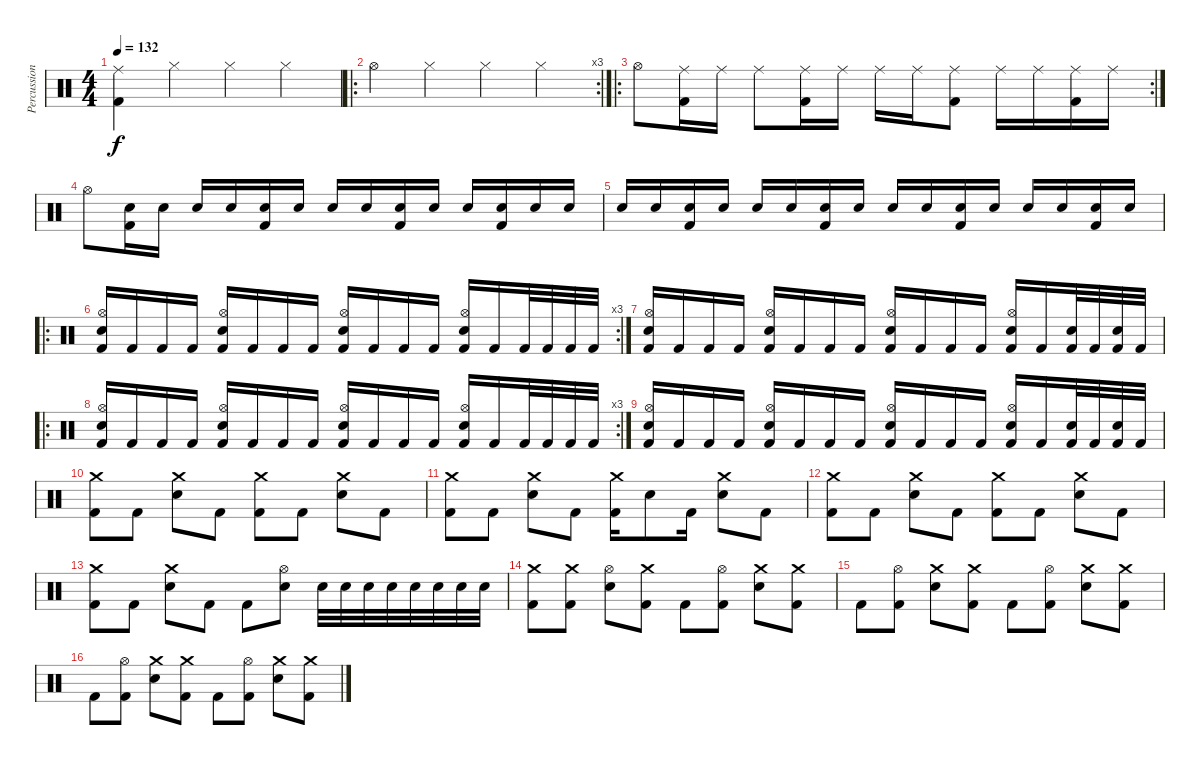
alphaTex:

\track ("Percussion" "Percussion") {instrument percussion}
\staff {score}
\articulation defaults
\ts (4 4)
\tempo 132
\clef neutral
\ks c
("Kick (hit) 2" "Ride (middle)").4{dy f} "Hi-Hat (closed)".4 "Hi-Hat (closed)".4 "Hi-Hat (closed)".4 |
\ro
\rc 3 "Hi-Hat (open)".4 "Hi-Hat (closed)".4 "Hi-Hat (closed)".4 "Hi-Hat (closed)".4
|
\ro
\rc 2 "Hi-Hat (open)".8
("Ride (middle)" "Kick (hit) 2").16 "Ride (middle)".16 "Ride (middle)".8 ("Ride (middle)" "Kick (hit) 2").16 "Ride (middle)".16 "Ride (middle)".16 "Ride (middle)".16 ("Ride (middle)" "Kick (hit) 2").8 "Ride (middle)".16 "Ride (middle)".16 ("Ride (middle)" "Kick (hit) 2").16 "Ride (middle)".16 |
"Hi-Hat (open)".8 ("Electric Snare (hit)" "Kick (hit) 2").16 "Electric Snare (hit)".16 "Electric Snare (hit)".16 "Electric Snare (hit)".16 ("Electric Snare (hit)" "Kick (hit) 2").16 "Electric Snare (hit)".16 "Electric Snare (hit)".16 "Electric Snare (hit)".16 ("Electric Snare (hit)" "Kick (hit) 2").16 "Electric Snare (hit)".16 "Electric Snare (hit)".16 ("Electric Snare (hit)" "Kick (hit) 2").16 "Electric Snare (hit)".16 "Electric Snare (hit)".16 |
"Electric Snare (hit)".16 "Electric Snare (hit)".16 ("Electric Snare (hit)" "Kick (hit) 2").16 "Electric Snare (hit)".16 "Electric Snare (hit)".16 "Electric Snare (hit)".16 ("Electric Snare (hit)" "Kick (hit) 2").16 "Electric Snare (hit)".16 "Electric Snare (hit)".16 "Electric Snare (hit)".16 ("Electric Snare (hit)" "Kick (hit) 2").16 "Electric Snare (hit)".16 "Electric Snare (hit)".16 "Electric Snare (hit)".16 ("Electric Snare (hit)" "Kick (hit) 2").16 "Electric Snare (hit)".16 |
\ro
\rc 3
("Kick (hit) 2" "Electric Snare (hit)" "Hi-Hat (open)").16 "Kick (hit) 2".16 "Kick (hit) 2".16 "Kick (hit) 2".16 ("Kick (hit) 2" "Electric Snare (hit)" "Hi-Hat (open)").16 "Kick (hit) 2".16 "Kick (hit) 2".16 "Kick (hit) 2".16 ("Kick (hit) 2" "Electric Snare (hit)" "Hi-Hat (open)").16 "Kick (hit) 2".16 "Kick (hit) 2".16 "Kick (hit) 2".16 ("Kick (hit) 2" "Electric Snare (hit)" "Hi-Hat (open)").16 "Kick (hit) 2".16 "Kick (hit) 2".32 "Kick (hit) 2".32 "Kick (hit) 2".32 "Kick (hit) 2".32 |
("Kick (hit) 2" "Electric Snare (hit)" "Hi-Hat (open)").16 "Kick (hit) 2".16 "Kick (hit) 2".16 "Kick (hit) 2".16 ("Kick (hit) 2" "Electric Snare (hit)" "Hi-Hat (open)").16 "Kick (hit) 2".16 "Kick (hit) 2".16 "Kick (hit) 2".16 ("Kick (hit) 2" "Electric Snare (hit)" "Hi-Hat (open)").16 "Kick (hit) 2".16 "Kick (hit) 2".16 "Kick (hit) 2".16 ("Kick (hit) 2" "Electric Snare (hit)" "Hi-Hat (open)").16 "Kick (hit) 2".16 ("Kick (hit) 2" "Electric Snare (hit)").32 "Kick (hit) 2".32 ("Kick (hit) 2" "Electric Snare (hit)").32 "Kick (hit) 2".32 |
\ro
\rc 3
("Kick (hit) 2" "Electric Snare (hit)" "Hi-Hat (open)").16 "Kick (hit) 2".16 "Kick (hit) 2".16 "Kick (hit) 2".16 ("Kick (hit) 2" "Electric Snare (hit)" "Hi-Hat (open)").16 "Kick (hit) 2".16 "Kick (hit) 2".16 "Kick (hit) 2".16 ("Kick (hit) 2" "Electric Snare (hit)" "Hi-Hat (open)").16 "Kick (hit) 2".16 "Kick (hit) 2".16 "Kick (hit) 2".16 ("Kick (hit) 2" "Electric Snare (hit)" "Hi-Hat (open)").16 "Kick (hit) 2".16 "Kick (hit) 2".32 "Kick (hit) 2".32 "Kick (hit) 2".32 "Kick (hit) 2".32 |
("Kick (hit) 2" "Electric Snare (hit)" "Hi-Hat (open)").16 "Kick (hit) 2".16 "Kick (hit) 2".16 "Kick (hit) 2".16 ("Kick (hit) 2" "Electric Snare (hit)" "Hi-Hat (open)").16 "Kick (hit) 2".16 "Kick (hit) 2".16 "Kick (hit) 2".16 ("Kick (hit) 2" "Electric Snare (hit)" "Hi-Hat (open)").16 "Kick (hit) 2".16 "Kick (hit) 2".16 "Kick (hit) 2".16 ("Kick (hit) 2" "Electric Snare (hit)" "Hi-Hat (open)").16 "Kick (hit) 2".16 ("Kick (hit) 2" "Electric Snare (hit)").32 "Kick (hit) 2".32 ("Kick (hit) 2" "Electric Snare (hit)").32 "Kick (hit) 2".32 |
("Kick (hit) 2" "Crash medium (hit)").8 "Kick (hit) 2".8 ("Electric Snare (hit)" "Crash medium (hit)").8 "Kick (hit) 2".8 ("Kick (hit) 2" "Crash medium (hit)").8 "Kick (hit) 2".8 ("Electric Snare (hit)" "Crash medium (hit)").8 "Kick (hit) 2".8 |
("Kick (hit) 2" "Crash medium (hit)").8 "Kick (hit) 2".8 ("Electric Snare (hit)" "Crash medium (hit)").8 "Kick (hit) 2".8 ("Kick (hit) 2" "Crash medium (hit)").16 "Electric Snare (hit)".8 "Kick (hit) 2".16 ("Electric Snare (hit)" "Crash medium (hit)").8 "Kick (hit) 2".8 |
("Kick (hit) 2" "Crash medium (hit)").8 "Kick (hit) 2".8 ("Electric Snare (hit)" "Crash medium (hit)").8 "Kick (hit) 2".8 ("Kick (hit) 2" "Crash medium (hit)").8 "Kick (hit) 2".8 ("Electric Snare (hit)" "Crash medium (hit)").8 "Kick (hit) 2".8 |
("Kick (hit) 2" "Crash medium (hit)").8 "Kick (hit) 2".8 ("Electric Snare (hit)" "Crash medium (hit)").8 "Kick (hit) 2".8 "Kick (hit) 2".8 ("Electric Snare (hit)" "Hi-Hat (open)").8 "Electric Snare (hit)".32 "Electric Snare (hit)".32 "Electric Snare (hit)".32 "Electric Snare (hit)".32 "Electric Snare (hit)".32 "Electric Snare (hit)".32 "Electric Snare (hit)".32 "Electric Snare (hit)".32 |
("Kick (hit) 2" "Crash medium (hit)").8 ("Kick (hit) 2" "Crash medium (hit)").8 ("Electric Snare (hit)" "Hi-Hat (open)").8 ("Kick (hit) 2" "Crash medium (hit)").8 "Kick (hit) 2".8 ("Kick (hit) 2" "Hi-Hat (open)").8 ("Electric Snare (hit)" "Crash medium (hit)").8 ("Kick (hit) 2" "Crash medium (hit)").8 |
"Kick (hit) 2".8 ("Kick (hit) 2" "Hi-Hat (open)").8 ("Electric Snare (hit)" "Crash medium (hit)").8 ("Kick (hit) 2" "Crash medium (hit)").8 "Kick (hit) 2".8 ("Kick (hit) 2" "Hi-Hat (open)").8 ("Electric Snare (hit)" "Crash medium (hit)").8 ("Kick (hit) 2" "Crash medium (hit)").8 |
"Kick (hit) 2".8 ("Kick (hit) 2" "Hi-Hat (open)").8 ("Electric Snare (hit)" "Crash medium (hit)").8 ("Kick (hit) 2" "Crash medium (hit)").8 "Kick (hit) 2".8 ("Kick (hit) 2" "Hi-Hat (open)").8 ("Electric Snare (hit)" "Crash medium (hit)").8 ("Kick (hit) 2" "Crash medium (hit)").8
